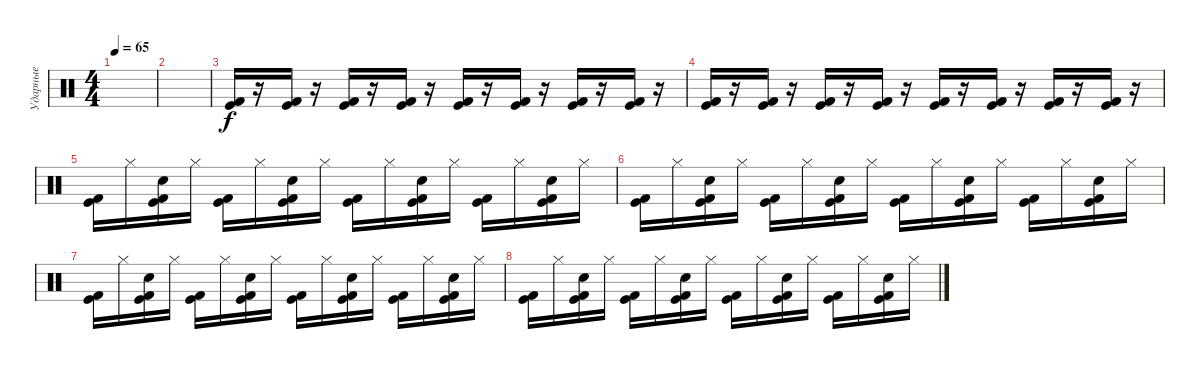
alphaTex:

\track ("Ударные" "Ударные") {instrument percussion}
\staff {score}
\articulation defaults
\ts (4 4)
\tempo 65
\clef neutral
\ks c
|
|
("Kick (hit) 2" "Kick (hit)").16 r.16 ("Kick (hit) 2" "Kick (hit)").16 r.16 ("Kick (hit) 2" "Kick (hit)").16 r.16 ("Kick (hit) 2" "Kick (hit)").16 r.16 ("Kick (hit) 2" "Kick (hit)").16 r.16 ("Kick (hit) 2" "Kick (hit)").16 r.16 ("Kick (hit) 2" "Kick (hit)").16 r.16 ("Kick (hit) 2" "Kick (hit)").16 r.16 |
("Kick (hit) 2" "Kick (hit)").16 r.16 ("Kick (hit) 2" "Kick (hit)").16 r.16 ("Kick (hit) 2" "Kick (hit)").16 r.16 ("Kick (hit) 2" "Kick (hit)").16 r.16 ("Kick (hit) 2" "Kick (hit)").16 r.16 ("Kick (hit) 2" "Kick (hit)").16 r.16 ("Kick (hit) 2" "Kick (hit)").16 r.16 ("Kick (hit) 2" "Kick (hit)").16 r.16 |
("Kick (hit) 2" "Kick (hit)").16 "Hi-Hat (closed)".16 ("Kick (hit) 2" "Kick (hit)" "Hand Clap (hit)").16 "Hi-Hat (closed)".16 ("Kick (hit) 2" "Kick (hit)").16 "Hi-Hat (closed)".16 ("Kick (hit) 2" "Kick (hit)" "Hand Clap (hit)").16 "Hi-Hat (closed)".16 ("Kick (hit) 2" "Kick (hit)").16 "Hi-Hat (closed)".16 ("Kick (hit) 2" "Kick (hit)" "Hand Clap (hit)").16 "Hi-Hat (closed)".16 ("Kick (hit) 2" "Kick (hit)").16 "Hi-Hat (closed)".16 ("Kick (hit) 2" "Kick (hit)" "Hand Clap (hit)").16 "Hi-Hat (closed)".16 |
("Kick (hit) 2" "Kick (hit)").16 "Hi-Hat (closed)".16 ("Kick (hit) 2" "Kick (hit)" "Hand Clap (hit)").16 "Hi-Hat (closed)".16 ("Kick (hit) 2" "Kick (hit)").16 "Hi-Hat (closed)".16 ("Kick (hit) 2" "Kick (hit)" "Hand Clap (hit)").16 "Hi-Hat (closed)".16 ("Kick (hit) 2" "Kick (hit)").16 "Hi-Hat (closed)".16 ("Kick (hit) 2" "Kick (hit)" "Hand Clap (hit)").16 "Hi-Hat (closed)".16 ("Kick (hit) 2" "Kick (hit)").16 "Hi-Hat (closed)".16 ("Kick (hit) 2" "Kick (hit)" "Hand Clap (hit)").16 "Hi-Hat (closed)".16 |
("Kick (hit) 2" "Kick (hit)").16 "Hi-Hat (closed)".16 ("Kick (hit) 2" "Kick (hit)" "Hand Clap (hit)").16 "Hi-Hat (closed)".16 ("Kick (hit) 2" "Kick (hit)").16 "Hi-Hat (closed)".16 ("Kick (hit) 2" "Kick (hit)" "Hand Clap (hit)").16 "Hi-Hat (closed)".16 ("Kick (hit) 2" "Kick (hit)").16 "Hi-Hat (closed)".16 ("Kick (hit) 2" "Kick (hit)" "Hand Clap (hit)").16 "Hi-Hat (closed)".16 ("Kick (hit) 2" "Kick (hit)").16 "Hi-Hat (closed)".16 ("Kick (hit) 2" "Kick (hit)" "Hand Clap (hit)").16 "Hi-Hat (closed)".16 |
("Kick (hit) 2" "Kick (hit)").16 "Hi-Hat (closed)".16 ("Kick (hit) 2" "Kick (hit)" "Hand Clap (hit)").16 "Hi-Hat (closed)".16 ("Kick (hit) 2" "Kick (hit)").16 "Hi-Hat (closed)".16 ("Kick (hit) 2" "Kick (hit)" "Hand Clap (hit)").16 "Hi-Hat (closed)".16 ("Kick (hit) 2" "Kick (hit)").16 "Hi-Hat (closed)".16 ("Kick (hit) 2" "Kick (hit)" "Hand Clap (hit)").16 "Hi-Hat (closed)".16 ("Kick (hit) 2" "Kick (hit)").16 "Hi-Hat (closed)".16 ("Kick (hit) 2" "Kick (hit)" "Hand Clap (hit)").16 "Hi-Hat (closed)".16
